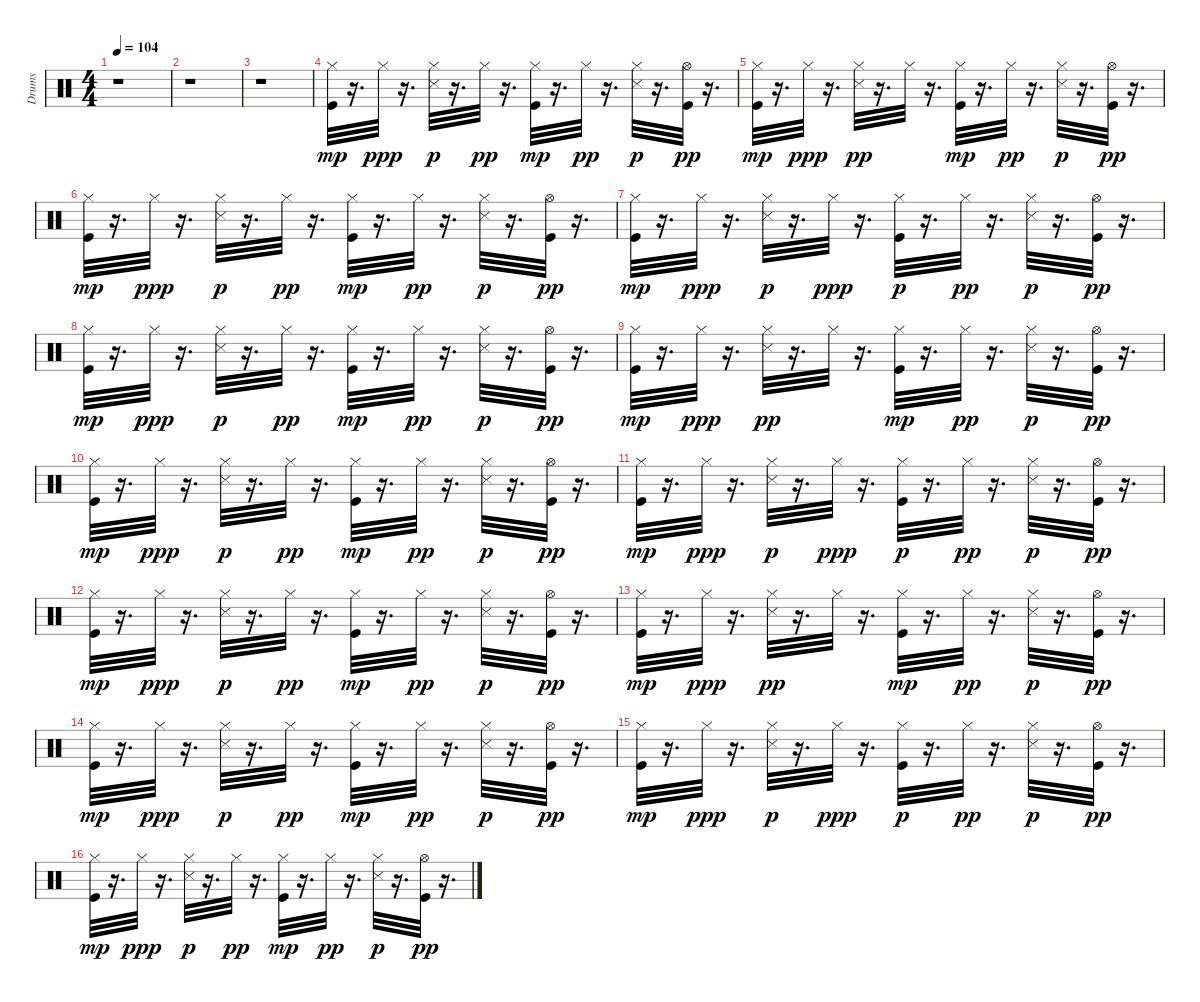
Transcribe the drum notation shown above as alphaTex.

\track ("Drums" "Drums") {instrument percussion}
\staff {score}
\articulation defaults
\ts (4 4)
\tempo 104
\clef neutral
\ks c
r.1{dy mp} |
r.1 |
r.1 |
("Kick (hit)" "Hi-Hat (closed)").32 r.16{d} "Hi-Hat (closed)".32{dy ppp} r.16{d} ("Snare (side stick) 3" "Hi-Hat (closed)").32{dy p} r.16{d} "Hi-Hat (closed)".32{dy pp} r.16{d} ("Kick (hit)" "Hi-Hat (closed)").32{dy mp} r.16{d} "Hi-Hat (closed)".32{dy pp} r.16{d} ("Snare (side stick) 3" "Hi-Hat (closed)").32{dy p} r.16{d} ("Kick (hit)" "Hi-Hat (open)").32{dy pp} r.16{d} |
("Kick (hit)" "Hi-Hat (closed)").32{dy mp} r.16{d} "Hi-Hat (closed)".32{dy ppp} r.16{d} ("Snare (side stick) 3" "Hi-Hat (closed)").32{dy pp} r.16{d} "Hi-Hat (closed)".32 r.16{d} ("Kick (hit)" "Hi-Hat (closed)").32{dy mp} r.16{d} "Hi-Hat (closed)".32{dy pp} r.16{d} ("Snare (side stick) 3" "Hi-Hat (closed)").32{dy p} r.16{d} ("Kick (hit)" "Hi-Hat (open)").32{dy pp} r.16{d} |
("Kick (hit)" "Hi-Hat (closed)").32{dy mp} r.16{d} "Hi-Hat (closed)".32{dy ppp} r.16{d} ("Snare (side stick) 3" "Hi-Hat (closed)").32{dy p} r.16{d} "Hi-Hat (closed)".32{dy pp} r.16{d} ("Kick (hit)" "Hi-Hat (closed)").32{dy mp} r.16{d} "Hi-Hat (closed)".32{dy pp} r.16{d} ("Snare (side stick) 3" "Hi-Hat (closed)").32{dy p} r.16{d} ("Kick (hit)" "Hi-Hat (open)").32{dy pp} r.16{d} |
("Kick (hit)" "Hi-Hat (closed)").32{dy mp} r.16{d} "Hi-Hat (closed)".32{dy ppp} r.16{d} ("Snare (side stick) 3" "Hi-Hat (closed)").32{dy p} r.16{d} "Hi-Hat (closed)".32{dy ppp} r.16{d} ("Kick (hit)" "Hi-Hat (closed)").32{dy p} r.16{d} "Hi-Hat (closed)".32{dy pp} r.16{d} ("Snare (side stick) 3" "Hi-Hat (closed)").32{dy p} r.16{d} ("Kick (hit)" "Hi-Hat (open)").32{dy pp} r.16{d} |
("Kick (hit)" "Hi-Hat (closed)").32{dy mp} r.16{d} "Hi-Hat (closed)".32{dy ppp} r.16{d} ("Snare (side stick) 3" "Hi-Hat (closed)").32{dy p} r.16{d} "Hi-Hat (closed)".32{dy pp} r.16{d} ("Kick (hit)" "Hi-Hat (closed)").32{dy mp} r.16{d} "Hi-Hat (closed)".32{dy pp} r.16{d} ("Snare (side stick) 3" "Hi-Hat (closed)").32{dy p} r.16{d} ("Kick (hit)" "Hi-Hat (open)").32{dy pp} r.16{d} |
("Kick (hit)" "Hi-Hat (closed)").32{dy mp} r.16{d} "Hi-Hat (closed)".32{dy ppp} r.16{d} ("Snare (side stick) 3" "Hi-Hat (closed)").32{dy pp} r.16{d} "Hi-Hat (closed)".32 r.16{d} ("Kick (hit)" "Hi-Hat (closed)").32{dy mp} r.16{d} "Hi-Hat (closed)".32{dy pp} r.16{d} ("Snare (side stick) 3" "Hi-Hat (closed)").32{dy p} r.16{d} ("Kick (hit)" "Hi-Hat (open)").32{dy pp} r.16{d} |
("Kick (hit)" "Hi-Hat (closed)").32{dy mp} r.16{d} "Hi-Hat (closed)".32{dy ppp} r.16{d} ("Snare (side stick) 3" "Hi-Hat (closed)").32{dy p} r.16{d} "Hi-Hat (closed)".32{dy pp} r.16{d} ("Kick (hit)" "Hi-Hat (closed)").32{dy mp} r.16{d} "Hi-Hat (closed)".32{dy pp} r.16{d} ("Snare (side stick) 3" "Hi-Hat (closed)").32{dy p} r.16{d} ("Kick (hit)" "Hi-Hat (open)").32{dy pp} r.16{d} |
("Kick (hit)" "Hi-Hat (closed)").32{dy mp} r.16{d} "Hi-Hat (closed)".32{dy ppp} r.16{d} ("Snare (side stick) 3" "Hi-Hat (closed)").32{dy p} r.16{d} "Hi-Hat (closed)".32{dy ppp} r.16{d} ("Kick (hit)" "Hi-Hat (closed)").32{dy p} r.16{d} "Hi-Hat (closed)".32{dy pp} r.16{d} ("Snare (side stick) 3" "Hi-Hat (closed)").32{dy p} r.16{d} ("Kick (hit)" "Hi-Hat (open)").32{dy pp} r.16{d} |
("Kick (hit)" "Hi-Hat (closed)").32{dy mp} r.16{d} "Hi-Hat (closed)".32{dy ppp} r.16{d} ("Snare (side stick) 3" "Hi-Hat (closed)").32{dy p} r.16{d} "Hi-Hat (closed)".32{dy pp} r.16{d} ("Kick (hit)" "Hi-Hat (closed)").32{dy mp} r.16{d} "Hi-Hat (closed)".32{dy pp} r.16{d} ("Snare (side stick) 3" "Hi-Hat (closed)").32{dy p} r.16{d} ("Kick (hit)" "Hi-Hat (open)").32{dy pp} r.16{d} |
("Kick (hit)" "Hi-Hat (closed)").32{dy mp} r.16{d} "Hi-Hat (closed)".32{dy ppp} r.16{d} ("Snare (side stick) 3" "Hi-Hat (closed)").32{dy pp} r.16{d} "Hi-Hat (closed)".32 r.16{d} ("Kick (hit)" "Hi-Hat (closed)").32{dy mp} r.16{d} "Hi-Hat (closed)".32{dy pp} r.16{d} ("Snare (side stick) 3" "Hi-Hat (closed)").32{dy p} r.16{d} ("Kick (hit)" "Hi-Hat (open)").32{dy pp} r.16{d} |
("Kick (hit)" "Hi-Hat (closed)").32{dy mp} r.16{d} "Hi-Hat (closed)".32{dy ppp} r.16{d} ("Snare (side stick) 3" "Hi-Hat (closed)").32{dy p} r.16{d} "Hi-Hat (closed)".32{dy pp} r.16{d} ("Kick (hit)" "Hi-Hat (closed)").32{dy mp} r.16{d} "Hi-Hat (closed)".32{dy pp} r.16{d} ("Snare (side stick) 3" "Hi-Hat (closed)").32{dy p} r.16{d} ("Kick (hit)" "Hi-Hat (open)").32{dy pp} r.16{d} |
("Kick (hit)" "Hi-Hat (closed)").32{dy mp} r.16{d} "Hi-Hat (closed)".32{dy ppp} r.16{d} ("Snare (side stick) 3" "Hi-Hat (closed)").32{dy p} r.16{d} "Hi-Hat (closed)".32{dy ppp} r.16{d} ("Kick (hit)" "Hi-Hat (closed)").32{dy p} r.16{d} "Hi-Hat (closed)".32{dy pp} r.16{d} ("Snare (side stick) 3" "Hi-Hat (closed)").32{dy p} r.16{d} ("Kick (hit)" "Hi-Hat (open)").32{dy pp} r.16{d} |
("Kick (hit)" "Hi-Hat (closed)").32{dy mp} r.16{d} "Hi-Hat (closed)".32{dy ppp} r.16{d} ("Snare (side stick) 3" "Hi-Hat (closed)").32{dy p} r.16{d} "Hi-Hat (closed)".32{dy pp} r.16{d} ("Kick (hit)" "Hi-Hat (closed)").32{dy mp} r.16{d} "Hi-Hat (closed)".32{dy pp} r.16{d} ("Snare (side stick) 3" "Hi-Hat (closed)").32{dy p} r.16{d} ("Kick (hit)" "Hi-Hat (open)").32{dy pp} r.16{d}
